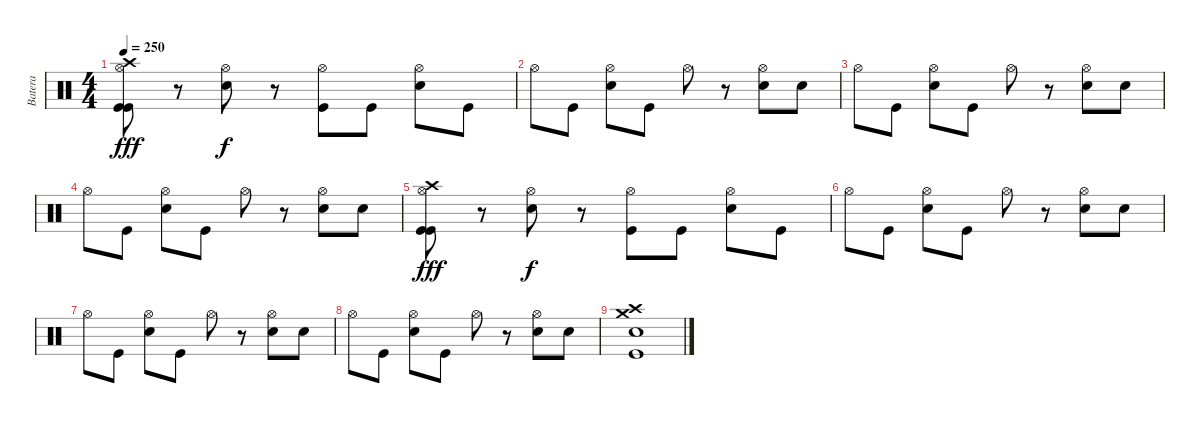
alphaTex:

\track ("Batera" "Batera") {instrument percussion}
\staff {score}
\articulation defaults
\ts (4 4)
\tempo 250
\clef neutral
\ks c
("Hi-Hat (open)" "Crash high (hit)" "Kick (hit)" "Kick (hit)").8{dy fff} r.8 ("Hi-Hat (open)" "Electric Snare (hit)").8{dy f} r.8 ("Hi-Hat (open)" "Kick (hit)").8 "Kick (hit)".8 ("Hi-Hat (open)" "Electric Snare (hit)").8 "Kick (hit)".8 |
"Hi-Hat (open)".8 "Kick (hit)".8 ("Hi-Hat (open)" "Electric Snare (hit)").8 "Kick (hit)".8 "Hi-Hat (open)".8 r.8 ("Hi-Hat (open)" "Electric Snare (hit)").8 "Electric Snare (hit)".8 |
"Hi-Hat (open)".8 "Kick (hit)".8 ("Hi-Hat (open)" "Electric Snare (hit)").8 "Kick (hit)".8 "Hi-Hat (open)".8 r.8 ("Hi-Hat (open)" "Electric Snare (hit)").8 "Electric Snare (hit)".8 |
"Hi-Hat (open)".8 "Kick (hit)".8 ("Hi-Hat (open)" "Electric Snare (hit)").8 "Kick (hit)".8 "Hi-Hat (open)".8 r.8 ("Hi-Hat (open)" "Electric Snare (hit)").8 "Electric Snare (hit)".8 |
("Hi-Hat (open)" "Crash high (hit)" "Kick (hit)" "Kick (hit)").8{dy fff} r.8 ("Hi-Hat (open)" "Electric Snare (hit)").8{dy f} r.8 ("Hi-Hat (open)" "Kick (hit)").8 "Kick (hit)".8 ("Hi-Hat (open)" "Electric Snare (hit)").8 "Kick (hit)".8 |
"Hi-Hat (open)".8 "Kick (hit)".8 ("Hi-Hat (open)" "Electric Snare (hit)").8 "Kick (hit)".8 "Hi-Hat (open)".8 r.8 ("Hi-Hat (open)" "Electric Snare (hit)").8 "Electric Snare (hit)".8 |
"Hi-Hat (open)".8 "Kick (hit)".8 ("Hi-Hat (open)" "Electric Snare (hit)").8 "Kick (hit)".8 "Hi-Hat (open)".8 r.8 ("Hi-Hat (open)" "Electric Snare (hit)").8 "Electric Snare (hit)".8 |
"Hi-Hat (open)".8 "Kick (hit)".8 ("Hi-Hat (open)" "Electric Snare (hit)").8 "Kick (hit)".8 "Hi-Hat (open)".8 r.8 ("Hi-Hat (open)" "Electric Snare (hit)").8 "Electric Snare (hit)".8 |
("Crash medium (hit)" "Crash high (hit)" "Electric Snare (hit)" "Kick (hit)").1
